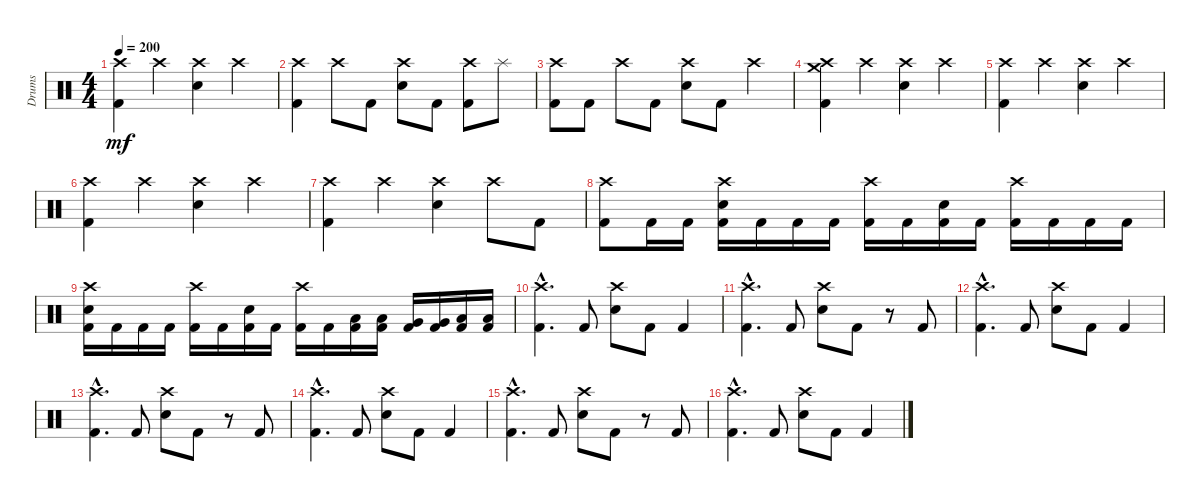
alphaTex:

\track ("Drums" "Drums") {instrument percussion}
\staff {score}
\articulation defaults
\ts (4 4)
\tempo 200
\clef neutral
\ks c
("Crash high (hit)" "Kick (hit) 2").4{dy mf} "Crash high (hit)".4 ("Crash high (hit)" "Electric Snare (hit)").4 "Crash high (hit)".4 |
("Crash high (hit)" "Kick (hit) 2").4 "Crash high (hit)".8 "Kick (hit) 2".8 ("Crash high (hit)" "Electric Snare (hit)").8 "Kick (hit) 2".8 ("Crash high (hit)" "Kick (hit) 2").8 "Splash (hit)".8 |
("Crash high (hit)" "Kick (hit) 2").8 "Kick (hit) 2".8 "Crash high (hit)".8 "Kick (hit) 2".8 ("Crash high (hit)" "Electric Snare (hit)").8 "Kick (hit) 2".8 "Crash high (hit)".4 |
("Crash high (hit)" "Crash medium (hit)" "Kick (hit) 2").4 "Crash high (hit)".4 ("Crash high (hit)" "Electric Snare (hit)").4 "Crash high (hit)".4 |
("Crash high (hit)" "Kick (hit) 2").4 "Crash high (hit)".4 ("Crash high (hit)" "Electric Snare (hit)").4 "Crash high (hit)".4 |
("Crash high (hit)" "Kick (hit) 2").4 "Crash high (hit)".4 ("Crash high (hit)" "Electric Snare (hit)").4 "Crash high (hit)".4 |
("Crash high (hit)" "Kick (hit) 2").4 "Crash high (hit)".4 ("Crash high (hit)" "Electric Snare (hit)").4 "Crash high (hit)".8 "Kick (hit) 2".8 |
("Crash high (hit)" "Kick (hit) 2").8 "Kick (hit) 2".16 "Kick (hit) 2".16 ("Crash high (hit)" "Electric Snare (hit)" "Kick (hit) 2").16 "Kick (hit) 2".16 "Kick (hit) 2".16 "Kick (hit) 2".16 ("Crash high (hit)" "Kick (hit) 2").16 "Kick (hit) 2".16 ("Electric Snare (hit)" "Kick (hit) 2").16 "Kick (hit) 2".16 ("Crash high (hit)" "Kick (hit) 2").16 "Kick (hit) 2".16 "Kick (hit) 2".16 "Kick (hit) 2".16 |
("Crash high (hit)" "Electric Snare (hit)" "Kick (hit) 2").16 "Kick (hit) 2".16 "Kick (hit) 2".16 "Kick (hit) 2".16 ("Crash high (hit)" "Kick (hit) 2").16 "Kick (hit) 2".16 ("Electric Snare (hit)" "Kick (hit) 2").16 "Kick (hit) 2".16 ("Crash high (hit)" "Kick (hit) 2").16 "Kick (hit) 2".16 ("Low Tom (hit)" "Kick (hit) 2").16 ("Low Tom (hit)" "Kick (hit) 2").16 ("Very Low Tom (hit)" "Kick (hit) 2").16 ("Very Low Tom (hit)" "Kick (hit) 2").16 ("Low Floor Tom (hit)" "Kick (hit) 2").16 ("Low Floor Tom (hit)" "Kick (hit) 2").16 |
("Crash high (hit)"{hac} "Kick (hit) 2"{hac}).4{d} "Kick (hit) 2".8 ("Crash high (hit)" "Electric Snare (hit)").8 "Kick (hit) 2".8 "Kick (hit) 2".4 |
("Crash high (hit)"{hac} "Kick (hit) 2"{hac}).4{d} "Kick (hit) 2".8 ("Crash high (hit)" "Electric Snare (hit)").8 "Kick (hit) 2".8 r.8 "Kick (hit) 2".8 |
("Crash high (hit)"{hac} "Kick (hit) 2"{hac}).4{d} "Kick (hit) 2".8 ("Crash high (hit)" "Electric Snare (hit)").8 "Kick (hit) 2".8 "Kick (hit) 2".4 |
("Crash high (hit)"{hac} "Kick (hit) 2"{hac}).4{d} "Kick (hit) 2".8 ("Crash high (hit)" "Electric Snare (hit)").8 "Kick (hit) 2".8 r.8 "Kick (hit) 2".8 |
("Crash high (hit)"{hac} "Kick (hit) 2"{hac}).4{d} "Kick (hit) 2".8 ("Crash high (hit)" "Electric Snare (hit)").8 "Kick (hit) 2".8 "Kick (hit) 2".4 |
("Crash high (hit)"{hac} "Kick (hit) 2"{hac}).4{d} "Kick (hit) 2".8 ("Crash high (hit)" "Electric Snare (hit)").8 "Kick (hit) 2".8 r.8 "Kick (hit) 2".8 |
("Crash high (hit)"{hac} "Kick (hit) 2"{hac}).4{d} "Kick (hit) 2".8 ("Crash high (hit)" "Electric Snare (hit)").8 "Kick (hit) 2".8 "Kick (hit) 2".4
